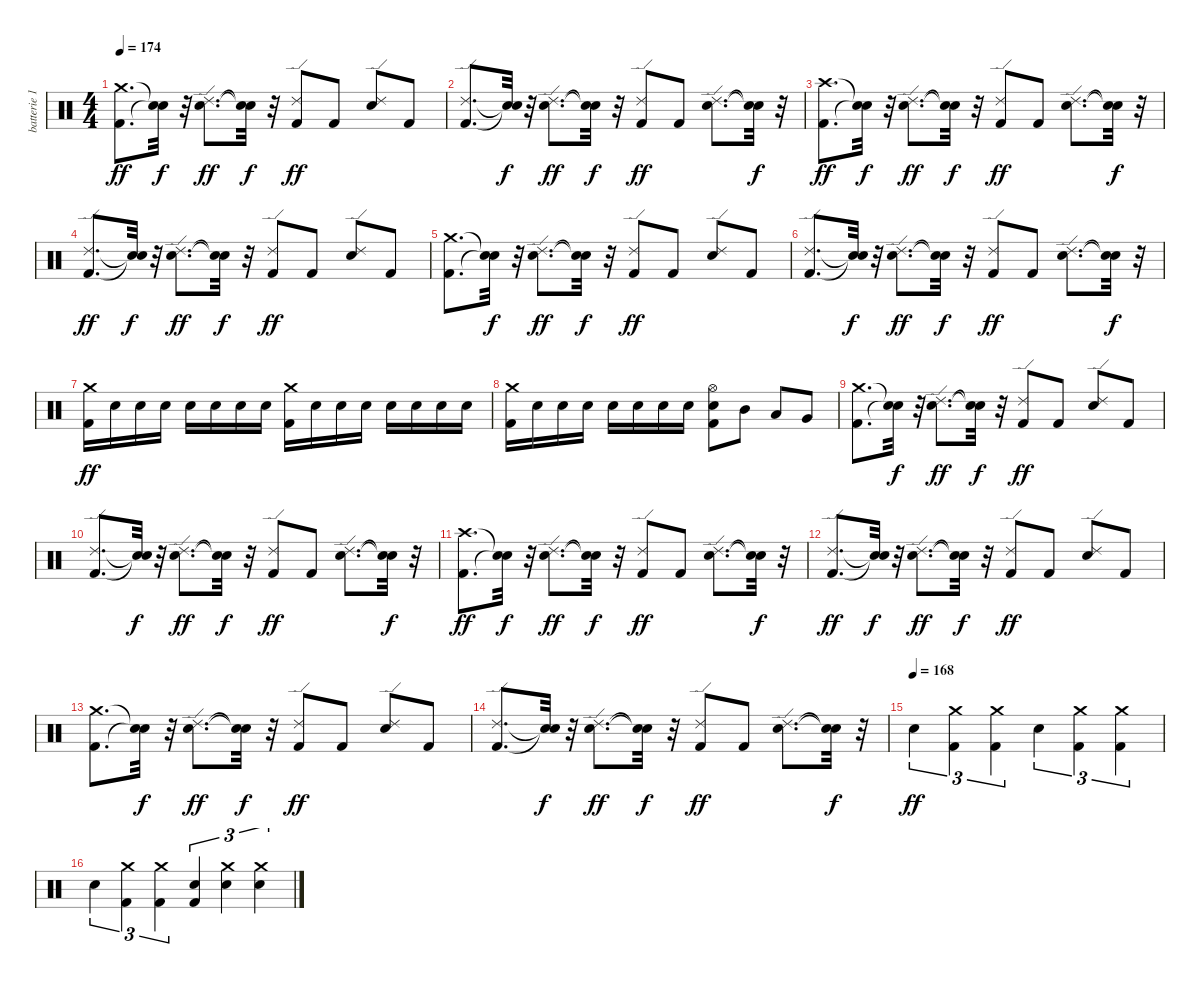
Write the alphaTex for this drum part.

\track ("batterie 1" "batterie 1") {instrument percussion}
\staff {score}
\articulation defaults
\ts (4 4)
\tempo 174
\clef neutral
\ks c
("Kick (hit) 2" "Crash medium (hit)").8{d dy ff} ("Snare (hit)"{t} "Snare (hit)"{t}).32{dy f} r.32 ("Electric Snare (hit)" "Ride (edge) 2").8{d dy ff} ("Snare (hit)"{t} "Snare (hit)"{t}).32{dy f} r.32 ("Kick (hit) 2" "Ride (edge) 2").8{dy ff} "Kick (hit) 2".8 ("Electric Snare (hit)" "Ride (edge) 2").8 "Kick (hit) 2".8 |
("Kick (hit) 2" "Ride (edge) 2").8{d} ("Snare (hit)"{t} "Snare (hit)"{t}).32{dy f} r.32 ("Electric Snare (hit)" "Ride (edge) 2").8{d dy ff} ("Snare (hit)"{t} "Snare (hit)"{t}).32{dy f} r.32 ("Kick (hit) 2" "Ride (edge) 2").8{dy ff} "Kick (hit) 2".8 ("Electric Snare (hit)" "Ride (edge) 2").8{d} ("Snare (hit)"{t} "Snare (hit)"{t}).32{dy f} r.32 |
("Kick (hit) 2" "Crash high (hit)").8{d dy ff} ("Snare (hit)"{t} "Snare (hit)"{t}).32{dy f} r.32 ("Electric Snare (hit)" "Ride (edge) 2").8{d dy ff} ("Snare (hit)"{t} "Snare (hit)"{t}).32{dy f} r.32 ("Kick (hit) 2" "Ride (edge) 2").8{dy ff} "Kick (hit) 2".8 ("Electric Snare (hit)" "Ride (edge) 2").8{d} ("Snare (hit)"{t} "Snare (hit)"{t}).32{dy f} r.32 |
("Kick (hit) 2" "Ride (edge) 2").8{d dy ff} ("Snare (hit)"{t} "Snare (hit)"{t}).32{dy f} r.32 ("Electric Snare (hit)" "Ride (edge) 2").8{d dy ff} ("Snare (hit)"{t} "Snare (hit)"{t}).32{dy f} r.32 ("Kick (hit) 2" "Ride (edge) 2").8{dy ff} "Kick (hit) 2".8 ("Electric Snare (hit)" "Ride (edge) 2").8 "Kick (hit) 2".8 |
("Kick (hit) 2" "Crash medium (hit)").8{d} ("Snare (hit)"{t} "Snare (hit)"{t}).32{dy f} r.32 ("Electric Snare (hit)" "Ride (edge) 2").8{d dy ff} ("Snare (hit)"{t} "Snare (hit)"{t}).32{dy f} r.32 ("Kick (hit) 2" "Ride (edge) 2").8{dy ff} "Kick (hit) 2".8 ("Electric Snare (hit)" "Ride (edge) 2").8 "Kick (hit) 2".8 |
("Kick (hit) 2" "Ride (edge) 2").8{d} ("Snare (hit)"{t} "Snare (hit)"{t}).32{dy f} r.32 ("Electric Snare (hit)" "Ride (edge) 2").8{d dy ff} ("Snare (hit)"{t} "Snare (hit)"{t}).32{dy f} r.32 ("Kick (hit) 2" "Ride (edge) 2").8{dy ff} "Kick (hit) 2".8 ("Electric Snare (hit)" "Ride (edge) 2").8{d} ("Snare (hit)"{t} "Snare (hit)"{t}).32{dy f} r.32 |
("Kick (hit) 2" "Crash medium (hit)").16{dy ff} "Electric Snare (hit)".16 "Electric Snare (hit)".16 "Electric Snare (hit)".16 "Electric Snare (hit)".16 "Electric Snare (hit)".16 "Electric Snare (hit)".16 "Electric Snare (hit)".16 ("Kick (hit) 2" "Crash medium (hit)").16 "Electric Snare (hit)".16 "Electric Snare (hit)".16 "Electric Snare (hit)".16 "Electric Snare (hit)".16 "Electric Snare (hit)".16 "Electric Snare (hit)".16 "Electric Snare (hit)".16 |
("Kick (hit) 2" "Crash medium (hit)").16 "Electric Snare (hit)".16 "Electric Snare (hit)".16 "Electric Snare (hit)".16 "Electric Snare (hit)".16 "Electric Snare (hit)".16 "Electric Snare (hit)".16 "Electric Snare (hit)".16 ("Kick (hit) 2" "Electric Snare (hit)" "Hi-Hat (open)").8 "Mid Tom (hit)".8 "Low Tom (hit)".8 "Very Low Tom (hit)".8 |
("Kick (hit) 2" "Crash medium (hit)").8{d} ("Snare (hit)"{t} "Snare (hit)"{t}).32{dy f} r.32 ("Electric Snare (hit)" "Ride (edge) 2").8{d dy ff} ("Snare (hit)"{t} "Snare (hit)"{t}).32{dy f} r.32 ("Kick (hit) 2" "Ride (edge) 2").8{dy ff} "Kick (hit) 2".8 ("Electric Snare (hit)" "Ride (edge) 2").8 "Kick (hit) 2".8 |
("Kick (hit) 2" "Ride (edge) 2").8{d} ("Snare (hit)"{t} "Snare (hit)"{t}).32{dy f} r.32 ("Electric Snare (hit)" "Ride (edge) 2").8{d dy ff} ("Snare (hit)"{t} "Snare (hit)"{t}).32{dy f} r.32 ("Kick (hit) 2" "Ride (edge) 2").8{dy ff} "Kick (hit) 2".8 ("Electric Snare (hit)" "Ride (edge) 2").8{d} ("Snare (hit)"{t} "Snare (hit)"{t}).32{dy f} r.32 |
("Kick (hit) 2" "Crash high (hit)").8{d dy ff} ("Snare (hit)"{t} "Snare (hit)"{t}).32{dy f} r.32 ("Electric Snare (hit)" "Ride (edge) 2").8{d dy ff} ("Snare (hit)"{t} "Snare (hit)"{t}).32{dy f} r.32 ("Kick (hit) 2" "Ride (edge) 2").8{dy ff} "Kick (hit) 2".8 ("Electric Snare (hit)" "Ride (edge) 2").8{d} ("Snare (hit)"{t} "Snare (hit)"{t}).32{dy f} r.32 |
("Kick (hit) 2" "Ride (edge) 2").8{d dy ff} ("Snare (hit)"{t} "Snare (hit)"{t}).32{dy f} r.32 ("Electric Snare (hit)" "Ride (edge) 2").8{d dy ff} ("Snare (hit)"{t} "Snare (hit)"{t}).32{dy f} r.32 ("Kick (hit) 2" "Ride (edge) 2").8{dy ff} "Kick (hit) 2".8 ("Electric Snare (hit)" "Ride (edge) 2").8 "Kick (hit) 2".8 |
("Kick (hit) 2" "Crash medium (hit)").8{d} ("Snare (hit)"{t} "Snare (hit)"{t}).32{dy f} r.32 ("Electric Snare (hit)" "Ride (edge) 2").8{d dy ff} ("Snare (hit)"{t} "Snare (hit)"{t}).32{dy f} r.32 ("Kick (hit) 2" "Ride (edge) 2").8{dy ff} "Kick (hit) 2".8 ("Electric Snare (hit)" "Ride (edge) 2").8 "Kick (hit) 2".8 |
("Kick (hit) 2" "Ride (edge) 2").8{d} ("Snare (hit)"{t} "Snare (hit)"{t}).32{dy f} r.32 ("Electric Snare (hit)" "Ride (edge) 2").8{d dy ff} ("Snare (hit)"{t} "Snare (hit)"{t}).32{dy f} r.32 ("Kick (hit) 2" "Ride (edge) 2").8{dy ff} "Kick (hit) 2".8 ("Electric Snare (hit)" "Ride (edge) 2").8{d} ("Snare (hit)"{t} "Snare (hit)"{t}).32{dy f} r.32 |
\tempo (168)
"Electric Snare (hit)".4{tu (3 2) dy ff} ("Kick (hit) 2" "Crash medium (hit)").4{tu (3 2)} ("Kick (hit) 2" "Crash medium (hit)").4{tu (3 2)} "Electric Snare (hit)".4{tu (3 2)} ("Kick (hit) 2" "Crash medium (hit)").4{tu (3 2)} ("Kick (hit) 2" "Crash medium (hit)").4{tu (3 2)} |
"Electric Snare (hit)".4{tu (3 2)} ("Kick (hit) 2" "Crash medium (hit)").4{tu (3 2)} ("Kick (hit) 2" "Crash medium (hit)").4{tu (3 2)} ("Kick (hit) 2" "Electric Snare (hit)").4{tu (3 2)} ("Electric Snare (hit)" "Crash medium (hit)").4{tu (3 2)} ("Electric Snare (hit)" "Crash medium (hit)").4{tu (3 2)}
